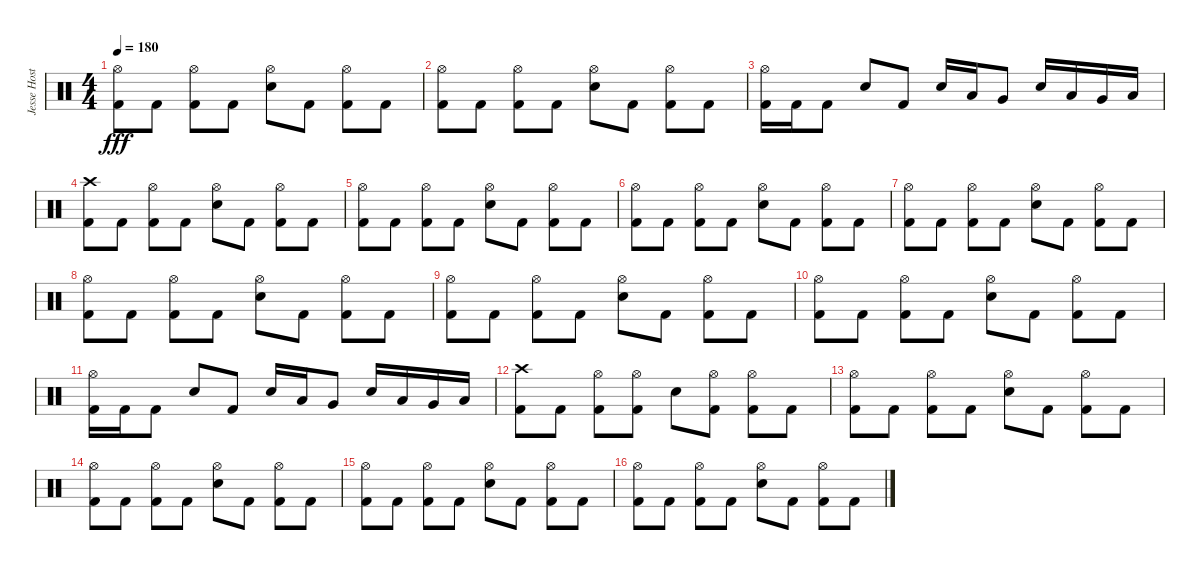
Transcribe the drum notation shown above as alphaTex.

\track ("Jesse Hostetler" "Jesse Host") {instrument percussion}
\staff {score}
\articulation defaults
\ts (4 4)
\tempo 180
\clef neutral
\ks c
("Hi-Hat (open)" "Kick (hit) 2").8{dy fff} "Kick (hit) 2".8 ("Hi-Hat (open)" "Kick (hit) 2").8 "Kick (hit) 2".8 ("Hi-Hat (open)" "Electric Snare (hit)").8 "Kick (hit) 2".8 ("Hi-Hat (open)" "Kick (hit) 2").8 "Kick (hit) 2".8 |
("Hi-Hat (open)" "Kick (hit) 2").8 "Kick (hit) 2".8 ("Hi-Hat (open)" "Kick (hit) 2").8 "Kick (hit) 2".8 ("Hi-Hat (open)" "Electric Snare (hit)").8 "Kick (hit) 2".8 ("Hi-Hat (open)" "Kick (hit) 2").8 "Kick (hit) 2".8 |
("Hi-Hat (open)" "Kick (hit) 2").16 "Kick (hit) 2".16 "Kick (hit) 2".8 "Electric Snare (hit)".8 "Kick (hit) 2".8 "Electric Snare (hit)".16 "Low Tom (hit)".16 "Very Low Tom (hit)".8 "Electric Snare (hit)".16 "Low Tom (hit)".16 "Very Low Tom (hit)".16 "Low Floor Tom (hit)".16 |
("Crash high (hit)" "Kick (hit) 2").8 "Kick (hit) 2".8 ("Hi-Hat (open)" "Kick (hit) 2").8 "Kick (hit) 2".8 ("Hi-Hat (open)" "Electric Snare (hit)").8 "Kick (hit) 2".8 ("Hi-Hat (open)" "Kick (hit) 2").8 "Kick (hit) 2".8 |
("Hi-Hat (open)" "Kick (hit) 2").8 "Kick (hit) 2".8 ("Hi-Hat (open)" "Kick (hit) 2").8 "Kick (hit) 2".8 ("Hi-Hat (open)" "Electric Snare (hit)").8 "Kick (hit) 2".8 ("Hi-Hat (open)" "Kick (hit) 2").8 "Kick (hit) 2".8 |
("Hi-Hat (open)" "Kick (hit) 2").8 "Kick (hit) 2".8 ("Hi-Hat (open)" "Kick (hit) 2").8 "Kick (hit) 2".8 ("Hi-Hat (open)" "Electric Snare (hit)").8 "Kick (hit) 2".8 ("Hi-Hat (open)" "Kick (hit) 2").8 "Kick (hit) 2".8 |
("Hi-Hat (open)" "Kick (hit) 2").8 "Kick (hit) 2".8 ("Hi-Hat (open)" "Kick (hit) 2").8 "Kick (hit) 2".8 ("Hi-Hat (open)" "Electric Snare (hit)").8 "Kick (hit) 2".8 ("Hi-Hat (open)" "Kick (hit) 2").8 "Kick (hit) 2".8 |
("Hi-Hat (open)" "Kick (hit) 2").8 "Kick (hit) 2".8 ("Hi-Hat (open)" "Kick (hit) 2").8 "Kick (hit) 2".8 ("Hi-Hat (open)" "Electric Snare (hit)").8 "Kick (hit) 2".8 ("Hi-Hat (open)" "Kick (hit) 2").8 "Kick (hit) 2".8 |
("Hi-Hat (open)" "Kick (hit) 2").8 "Kick (hit) 2".8 ("Hi-Hat (open)" "Kick (hit) 2").8 "Kick (hit) 2".8 ("Hi-Hat (open)" "Electric Snare (hit)").8 "Kick (hit) 2".8 ("Hi-Hat (open)" "Kick (hit) 2").8 "Kick (hit) 2".8 |
("Hi-Hat (open)" "Kick (hit) 2").8 "Kick (hit) 2".8 ("Hi-Hat (open)" "Kick (hit) 2").8 "Kick (hit) 2".8 ("Hi-Hat (open)" "Electric Snare (hit)").8 "Kick (hit) 2".8 ("Hi-Hat (open)" "Kick (hit) 2").8 "Kick (hit) 2".8 |
("Hi-Hat (open)" "Kick (hit) 2").16 "Kick (hit) 2".16 "Kick (hit) 2".8 "Electric Snare (hit)".8 "Kick (hit) 2".8 "Electric Snare (hit)".16 "Low Tom (hit)".16 "Very Low Tom (hit)".8 "Electric Snare (hit)".16 "Low Tom (hit)".16 "Very Low Tom (hit)".16 "Low Floor Tom (hit)".16 |
("Crash high (hit)" "Kick (hit) 2").8 "Kick (hit) 2".8 ("Hi-Hat (open)" "Kick (hit) 2").8 ("Hi-Hat (open)" "Kick (hit) 2").8 "Electric Snare (hit)".8 ("Hi-Hat (open)" "Kick (hit) 2").8 ("Hi-Hat (open)" "Kick (hit) 2").8 "Kick (hit) 2".8 |
("Hi-Hat (open)" "Kick (hit) 2").8 "Kick (hit) 2".8 ("Hi-Hat (open)" "Kick (hit) 2").8 "Kick (hit) 2".8 ("Hi-Hat (open)" "Electric Snare (hit)").8 "Kick (hit) 2".8 ("Hi-Hat (open)" "Kick (hit) 2").8 "Kick (hit) 2".8 |
("Hi-Hat (open)" "Kick (hit) 2").8 "Kick (hit) 2".8 ("Hi-Hat (open)" "Kick (hit) 2").8 "Kick (hit) 2".8 ("Hi-Hat (open)" "Electric Snare (hit)").8 "Kick (hit) 2".8 ("Hi-Hat (open)" "Kick (hit) 2").8 "Kick (hit) 2".8 |
("Hi-Hat (open)" "Kick (hit) 2").8 "Kick (hit) 2".8 ("Hi-Hat (open)" "Kick (hit) 2").8 "Kick (hit) 2".8 ("Hi-Hat (open)" "Electric Snare (hit)").8 "Kick (hit) 2".8 ("Hi-Hat (open)" "Kick (hit) 2").8 "Kick (hit) 2".8 |
("Hi-Hat (open)" "Kick (hit) 2").8 "Kick (hit) 2".8 ("Hi-Hat (open)" "Kick (hit) 2").8 "Kick (hit) 2".8 ("Hi-Hat (open)" "Electric Snare (hit)").8 "Kick (hit) 2".8 ("Hi-Hat (open)" "Kick (hit) 2").8 "Kick (hit) 2".8
